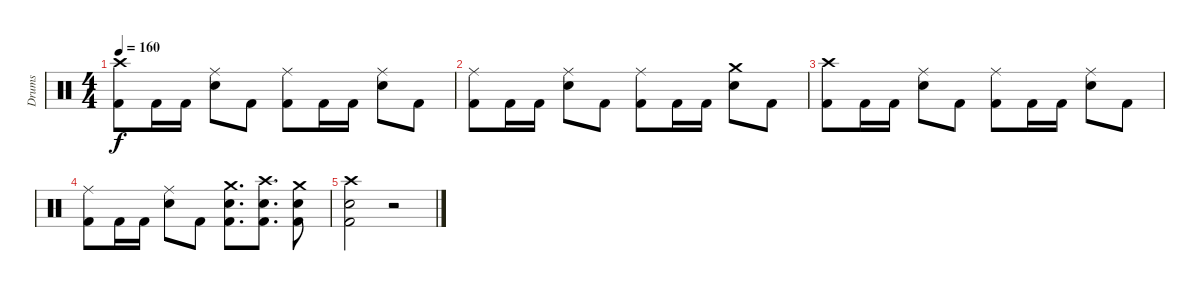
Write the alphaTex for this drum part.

\track ("Drums" "Drums") {instrument percussion}
\staff {score}
\articulation defaults
\ts (4 4)
\tempo 160
\clef neutral
\ks c
("Crash high (hit)" "Kick (hit) 2").8{dy f} "Kick (hit) 2".16 "Kick (hit) 2".16 ("Ride (middle)" "Snare (hit) 2").8 "Kick (hit) 2".8 ("Ride (middle)" "Kick (hit) 2").8 "Kick (hit) 2".16 "Kick (hit) 2".16 ("Ride (middle)" "Snare (hit) 2").8 "Kick (hit) 2".8 |
("Ride (middle)" "Kick (hit) 2").8 "Kick (hit) 2".16 "Kick (hit) 2".16 ("Ride (middle)" "Snare (hit) 2").8 "Kick (hit) 2".8 ("Ride (middle)" "Kick (hit) 2").8 "Kick (hit) 2".16 "Kick (hit) 2".16 ("Crash medium (hit)" "Snare (hit) 2").8 "Kick (hit) 2".8 |
("Crash high (hit)" "Kick (hit) 2").8 "Kick (hit) 2".16 "Kick (hit) 2".16 ("Ride (middle)" "Snare (hit) 2").8 "Kick (hit) 2".8 ("Ride (middle)" "Kick (hit) 2").8 "Kick (hit) 2".16 "Kick (hit) 2".16 ("Ride (middle)" "Snare (hit) 2").8 "Kick (hit) 2".8 |
("Ride (middle)" "Kick (hit) 2").8 "Kick (hit) 2".16 "Kick (hit) 2".16 ("Ride (middle)" "Snare (hit) 2").8 "Kick (hit) 2".8 ("Crash medium (hit)" "Snare (hit) 2" "Kick (hit) 2").8{d} ("Crash high (hit)" "Snare (hit) 2" "Kick (hit) 2").8{d} ("Crash medium (hit)" "Snare (hit) 2" "Kick (hit) 2").8 |
("Crash high (hit)" "Snare (hit) 2" "Kick (hit) 2").2 r.2
